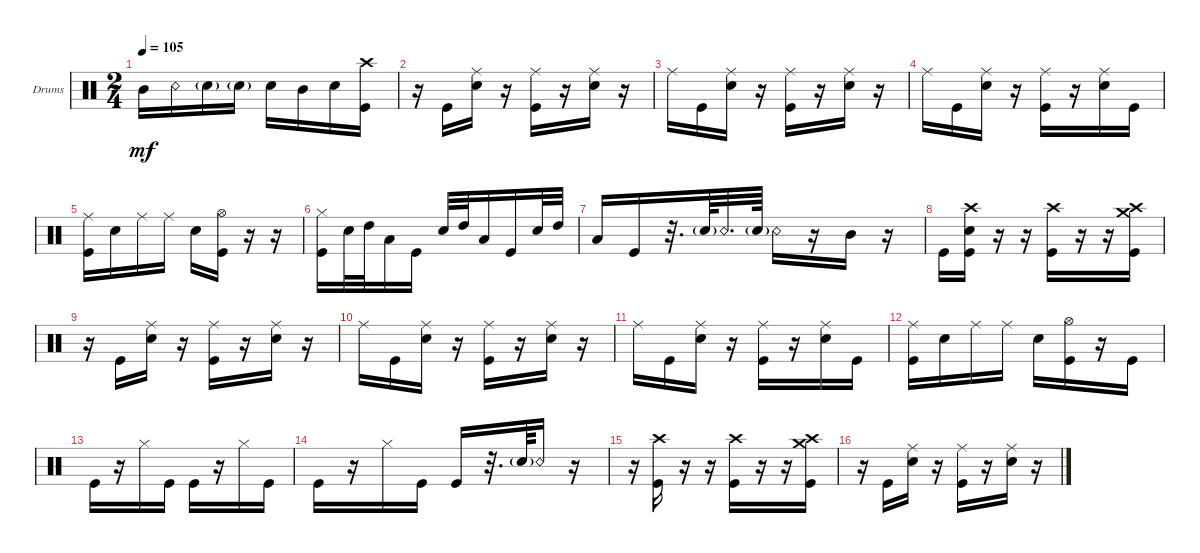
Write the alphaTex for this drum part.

\defaultSystemsLayout 4
\bracketExtendMode groupsimilarinstruments
\firstSystemTrackNameOrientation horizontal
\otherSystemsTrackNameOrientation horizontal
\track ("Godd" "Drums") {instrument percussion}
\staff {score}
\articulation defaults
\ts (2 4)
\tempo 105
\clef neutral
\ks c "Mid Tom (hit)".16{dy mf} "Snare (rim shot)".16 "Snare (hit) 2"{g}.16 "Snare (hit) 2"{g}.16 "Snare (hit) 2".16 "Mid Tom (hit)".16 "Snare (hit) 2".16
("Kick (hit)" "Crash high (hit)").16 |
r.16 "Kick (hit)".16 ("Ride (middle)" "Snare (hit) 2").16 r.16 ("Ride (middle)" "Kick (hit)").16 r.16 ("Ride (middle)" "Snare (hit) 2").16 r.16 |
"Ride (middle)".16 "Kick (hit)".16 ("Ride (middle)" "Snare (hit) 2").16 r.16 ("Ride (middle)" "Kick (hit)").16 r.16 ("Ride (middle)" "Snare (hit) 2").16 r.16 |
"Ride (middle)".16 "Kick (hit)".16 ("Ride (middle)" "Snare (hit) 2").16 r.16 ("Ride (middle)" "Kick (hit)").16 r.16 ("Ride (middle)" "Snare (hit) 2").16 "Kick (hit)".16 |
("Kick (hit)" "Ride (middle)").16 "Snare (hit) 2".16 "Ride (middle)".16 "Ride (middle)".16 "Snare (hit) 2".16 ("Kick (hit)" "Hi-Hat (open)").16 r.16 r.16 |
("Kick (hit)" "Hi-Hat (closed)").16 "Snare (hit) 2".32 "High Tom (hit)".32 "Low Tom (hit)".16 "Kick (hit)".16 "Snare (hit) 2".32 "High Tom (hit)".32 "Low Tom (hit)".16 "Kick (hit)".16 "Snare (hit) 2".32 "High Tom (hit)".32 |
"Low Tom (hit)".16 "Kick (hit)".16 r.32{d} "Snare (hit) 2"{g}.64 "Snare (rim shot)".32{d} "Snare (hit) 2"{g}.64 "Snare (rim shot)".16 r.16 "Mid Tom (hit)".16 r.16 |
"Kick (hit)".16 ("Crash high (hit)" "Snare (hit) 2" "Kick (hit)").16 r.16 r.16 ("Kick (hit)" "Crash high (hit)").16 r.16 r.16 ("Kick (hit)" "Crash medium (hit)" "Crash high (hit)").16 |
r.16 "Kick (hit)".16 ("Ride (middle)" "Snare (hit) 2").16 r.16 ("Ride (middle)" "Kick (hit)").16 r.16 ("Ride (middle)" "Snare (hit) 2").16 r.16 |
"Ride (middle)".16 "Kick (hit)".16 ("Ride (middle)" "Snare (hit) 2").16 r.16 ("Ride (middle)" "Kick (hit)").16 r.16 ("Ride (middle)" "Snare (hit) 2").16 r.16 |
"Ride (middle)".16 "Kick (hit)".16 ("Ride (middle)" "Snare (hit) 2").16 r.16 ("Ride (middle)" "Kick (hit)").16 r.16 ("Ride (middle)" "Snare (hit) 2").16 "Kick (hit)".16 |
("Kick (hit)" "Ride (middle)").16 "Snare (hit) 2".16 "Ride (middle)".16 "Ride (middle)".16 "Snare (hit) 2".16 ("Kick (hit)" "Hi-Hat (open)").16 r.16 "Kick (hit)".16 |
"Kick (hit)".16 r.16 "Hi-Hat (closed)".16 "Kick (hit)".16 "Kick (hit)".16 r.16 "Hi-Hat (closed)".16 "Kick (hit)".16 |
"Kick (hit)".16 r.16 "Hi-Hat (closed)".16 "Kick (hit)".16 "Kick (hit)".16 r.32{d} "Snare (hit) 2"{g}.64 "Snare (rim shot)".16 r.16 |
r.16 ("Crash high (hit)" "Kick (hit)").16 r.16 r.16 ("Kick (hit)" "Crash high (hit)").16 r.16 r.16 ("Kick (hit)" "Crash medium (hit)" "Crash high (hit)").16 |
r.16 "Kick (hit)".16 ("Ride (middle)" "Snare (hit) 2").16 r.16 ("Ride (middle)" "Kick (hit)").16 r.16 ("Ride (middle)" "Snare (hit) 2").16 r.16
